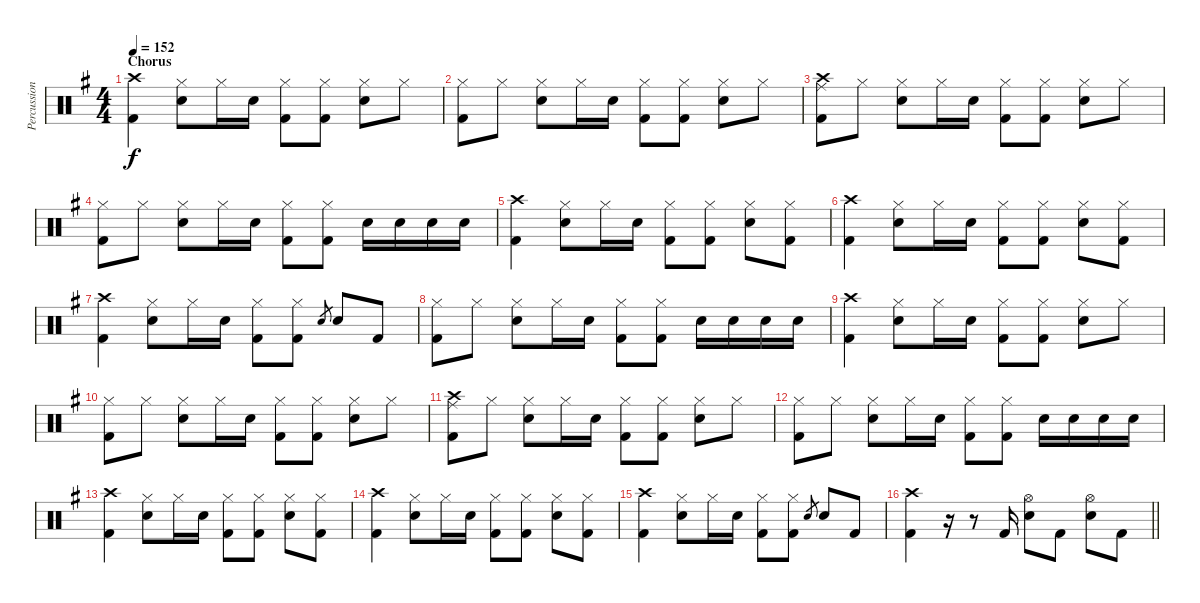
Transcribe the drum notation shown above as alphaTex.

\track ("Percussion" "Percussion") {instrument percussion}
\staff {score}
\articulation defaults
\ts (4 4)
\section ("" "Chorus")
\tempo 152
\clef neutral
\ks eminor
("Crash high (hit)" "Kick (hit) 2").4{dy f} ("Hi-Hat (closed)" "Snare (hit) 2").8 "Hi-Hat (closed)".16 "Snare (hit) 2".16 ("Hi-Hat (closed)" "Kick (hit) 2").8 ("Hi-Hat (closed)" "Kick (hit) 2").8 ("Hi-Hat (closed)" "Snare (hit) 2").8 "Hi-Hat (closed)".8 |
("Hi-Hat (closed)" "Kick (hit) 2").8 "Hi-Hat (closed)".8 ("Hi-Hat (closed)" "Snare (hit) 2").8 "Hi-Hat (closed)".16 "Snare (hit) 2".16 ("Hi-Hat (closed)" "Kick (hit) 2").8 ("Hi-Hat (closed)" "Kick (hit) 2").8 ("Hi-Hat (closed)" "Snare (hit) 2").8 "Hi-Hat (closed)".8 |
("Crash high (hit)" "Kick (hit) 2" "Ride (middle)").8 "Hi-Hat (closed)".8 ("Hi-Hat (closed)" "Snare (hit) 2").8 "Hi-Hat (closed)".16 "Snare (hit) 2".16 ("Hi-Hat (closed)" "Kick (hit) 2").8 ("Hi-Hat (closed)" "Kick (hit) 2").8 ("Hi-Hat (closed)" "Snare (hit) 2").8 "Hi-Hat (closed)".8 |
("Hi-Hat (closed)" "Kick (hit) 2").8 "Hi-Hat (closed)".8 ("Hi-Hat (closed)" "Snare (hit) 2").8 "Hi-Hat (closed)".16 "Snare (hit) 2".16 ("Hi-Hat (closed)" "Kick (hit) 2").8 ("Hi-Hat (closed)" "Kick (hit) 2").8 "Snare (hit) 2".16 "Snare (hit) 2".16 "Snare (hit) 2".16 "Snare (hit) 2".16 |
("Crash high (hit)" "Kick (hit) 2").4 ("Hi-Hat (closed)" "Snare (hit) 2").8 "Hi-Hat (closed)".16 "Snare (hit) 2".16 ("Hi-Hat (closed)" "Kick (hit) 2").8 ("Hi-Hat (closed)" "Kick (hit) 2").8 ("Hi-Hat (closed)" "Snare (hit) 2").8 ("Hi-Hat (closed)" "Kick (hit) 2").8 |
("Crash high (hit)" "Kick (hit) 2").4 ("Hi-Hat (closed)" "Snare (hit) 2").8 "Hi-Hat (closed)".16 "Snare (hit) 2".16 ("Hi-Hat (closed)" "Kick (hit) 2").8 ("Hi-Hat (closed)" "Kick (hit) 2").8 ("Hi-Hat (closed)" "Snare (hit) 2").8 ("Hi-Hat (closed)" "Kick (hit) 2").8 |
("Crash high (hit)" "Kick (hit) 2").4 ("Hi-Hat (closed)" "Snare (hit) 2").8 "Hi-Hat (closed)".16 "Snare (hit) 2".16 ("Hi-Hat (closed)" "Kick (hit) 2").8 ("Hi-Hat (closed)" "Kick (hit) 2").8 "Snare (hit) 2".8{gr} "Snare (hit) 2".8 "Kick (hit) 2".8 |
("Hi-Hat (closed)" "Kick (hit) 2").8 "Hi-Hat (closed)".8 ("Hi-Hat (closed)" "Snare (hit) 2").8 "Hi-Hat (closed)".16 "Snare (hit) 2".16 ("Hi-Hat (closed)" "Kick (hit) 2").8 ("Hi-Hat (closed)" "Kick (hit) 2").8 "Snare (hit) 2".16 "Snare (hit) 2".16 "Snare (hit) 2".16 "Snare (hit) 2".16 |
("Crash high (hit)" "Kick (hit) 2").4 ("Hi-Hat (closed)" "Snare (hit) 2").8 "Hi-Hat (closed)".16 "Snare (hit) 2".16 ("Hi-Hat (closed)" "Kick (hit) 2").8 ("Hi-Hat (closed)" "Kick (hit) 2").8 ("Hi-Hat (closed)" "Snare (hit) 2").8 "Hi-Hat (closed)".8 |
("Hi-Hat (closed)" "Kick (hit) 2").8 "Hi-Hat (closed)".8 ("Hi-Hat (closed)" "Snare (hit) 2").8 "Hi-Hat (closed)".16 "Snare (hit) 2".16 ("Hi-Hat (closed)" "Kick (hit) 2").8 ("Hi-Hat (closed)" "Kick (hit) 2").8 ("Hi-Hat (closed)" "Snare (hit) 2").8 "Hi-Hat (closed)".8 |
("Crash high (hit)" "Kick (hit) 2" "Ride (middle)").8 "Hi-Hat (closed)".8 ("Hi-Hat (closed)" "Snare (hit) 2").8 "Hi-Hat (closed)".16 "Snare (hit) 2".16 ("Hi-Hat (closed)" "Kick (hit) 2").8 ("Hi-Hat (closed)" "Kick (hit) 2").8 ("Hi-Hat (closed)" "Snare (hit) 2").8 "Hi-Hat (closed)".8 |
("Hi-Hat (closed)" "Kick (hit) 2").8 "Hi-Hat (closed)".8 ("Hi-Hat (closed)" "Snare (hit) 2").8 "Hi-Hat (closed)".16 "Snare (hit) 2".16 ("Hi-Hat (closed)" "Kick (hit) 2").8 ("Hi-Hat (closed)" "Kick (hit) 2").8 "Snare (hit) 2".16 "Snare (hit) 2".16 "Snare (hit) 2".16 "Snare (hit) 2".16 |
("Crash high (hit)" "Kick (hit) 2").4 ("Hi-Hat (closed)" "Snare (hit) 2").8 "Hi-Hat (closed)".16 "Snare (hit) 2".16 ("Hi-Hat (closed)" "Kick (hit) 2").8 ("Hi-Hat (closed)" "Kick (hit) 2").8 ("Hi-Hat (closed)" "Snare (hit) 2").8 ("Hi-Hat (closed)" "Kick (hit) 2").8 |
("Crash high (hit)" "Kick (hit) 2").4 ("Hi-Hat (closed)" "Snare (hit) 2").8 "Hi-Hat (closed)".16 "Snare (hit) 2".16 ("Hi-Hat (closed)" "Kick (hit) 2").8 ("Hi-Hat (closed)" "Kick (hit) 2").8 ("Hi-Hat (closed)" "Snare (hit) 2").8 ("Hi-Hat (closed)" "Kick (hit) 2").8 |
("Crash high (hit)" "Kick (hit) 2").4 ("Hi-Hat (closed)" "Snare (hit) 2").8 "Hi-Hat (closed)".16 "Snare (hit) 2".16 ("Hi-Hat (closed)" "Kick (hit) 2").8 ("Hi-Hat (closed)" "Kick (hit) 2").8 "Snare (hit) 2".8{gr} "Snare (hit) 2".8 "Kick (hit) 2".8 |
\barLineRight lightlight
("Crash high (hit)" "Kick (hit) 2").4 r.16 r.8 "Kick (hit) 2".16 ("Hi-Hat (open)" "Snare (hit) 2").8 "Kick (hit) 2".8 ("Hi-Hat (open)" "Snare (hit) 2").8 "Kick (hit) 2".8
